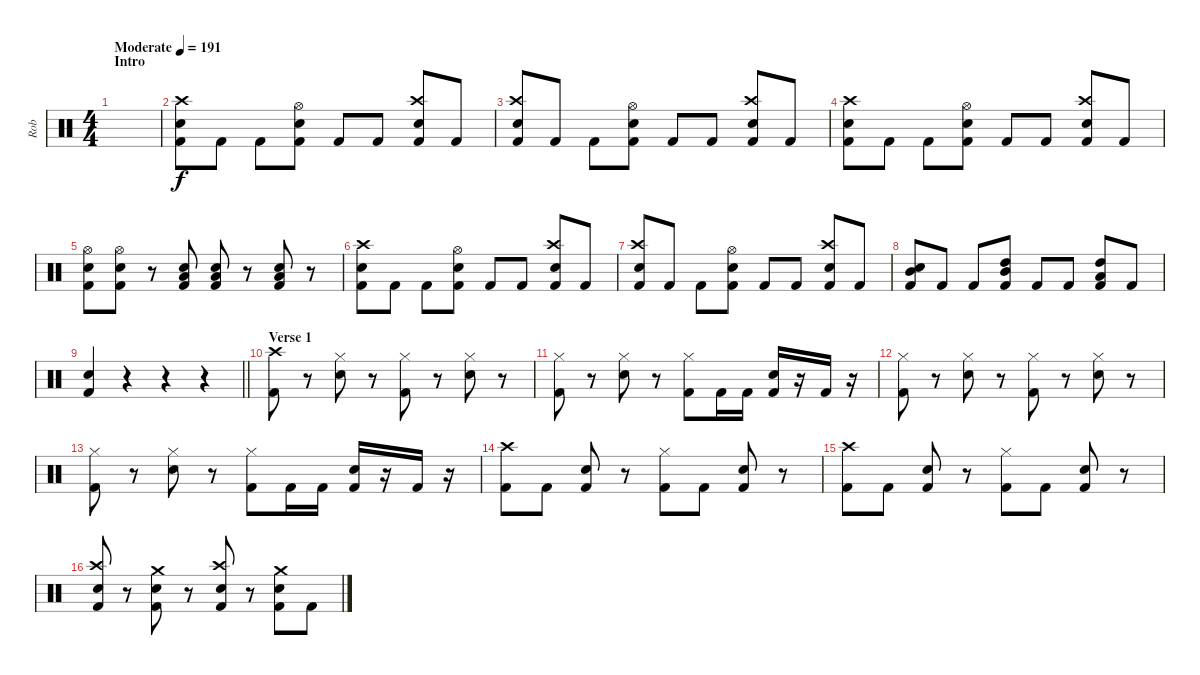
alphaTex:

\track ("Rob" "Rob") {instrument percussion}
\staff {score}
\articulation defaults
\ts (4 4)
\section ("" "Intro")
\tempo (191 "Moderate")
\clef neutral
\ks c
|
("Electric Snare (hit)" "Kick (hit) 2" "Crash high (hit)").8 "Kick (hit) 2".8 "Kick (hit) 2".8 ("Kick (hit) 2" "Snare (hit) 2" "Hi-Hat (open)").8 "Kick (hit) 2".8 "Kick (hit) 2".8 ("Kick (hit) 2" "Snare (hit) 2" "Crash high (hit)").8 "Kick (hit) 2".8 |
("Kick (hit) 2" "Crash high (hit)" "Snare (hit) 2").8 "Kick (hit) 2".8 "Kick (hit) 2".8 ("Kick (hit) 2" "Hi-Hat (open)" "Snare (hit) 2").8 "Kick (hit) 2".8 "Kick (hit) 2".8 ("Kick (hit) 2" "Snare (hit) 2" "Crash high (hit)").8 "Kick (hit) 2".8 |
("Electric Snare (hit)" "Kick (hit) 2" "Crash high (hit)").8 "Kick (hit) 2".8 "Kick (hit) 2".8 ("Kick (hit) 2" "Snare (hit) 2" "Hi-Hat (open)").8 "Kick (hit) 2".8 "Kick (hit) 2".8 ("Kick (hit) 2" "Snare (hit) 2" "Crash high (hit)").8 "Kick (hit) 2".8 |
("Kick (hit) 2" "Snare (hit) 2" "Hi-Hat (open)").8 ("Kick (hit) 2" "Snare (hit) 2" "Hi-Hat (open)").8 r.8 ("Kick (hit) 2" "Snare (hit) 2" "Low Tom (hit)").8 ("Kick (hit) 2" "Snare (hit) 2" "Low Tom (hit)").8 r.8 ("Kick (hit) 2" "Snare (hit) 2" "Low Tom (hit)").8 r.8 |
("Electric Snare (hit)" "Kick (hit) 2" "Crash high (hit)").8 "Kick (hit) 2".8 "Kick (hit) 2".8 ("Kick (hit) 2" "Snare (hit) 2" "Hi-Hat (open)").8 "Kick (hit) 2".8 "Kick (hit) 2".8 ("Kick (hit) 2" "Snare (hit) 2" "Crash high (hit)").8 "Kick (hit) 2".8 |
("Kick (hit) 2" "Crash high (hit)" "Snare (hit) 2").8 "Kick (hit) 2".8 "Kick (hit) 2".8 ("Kick (hit) 2" "Hi-Hat (open)" "Snare (hit) 2").8 "Kick (hit) 2".8 "Kick (hit) 2".8 ("Kick (hit) 2" "Snare (hit) 2" "Crash high (hit)").8 "Kick (hit) 2".8 |
("Snare (hit) 2" "Kick (hit) 2" "Mid Tom (hit)").8 "Kick (hit) 2".8 "Kick (hit) 2".8 ("Kick (hit) 2" "High Tom (hit)" "Mid Tom (hit)").8 "Kick (hit) 2".8 "Kick (hit) 2".8 ("Kick (hit) 2" "High Tom (hit)" "Low Tom (hit)").8 "Kick (hit) 2".8 |
\barLineRight lightlight
("Snare (hit) 2" "Kick (hit) 2").4 r.4 r.4 r.4 |
\section ("" "Verse 1")
("Crash high (hit)" "Kick (hit) 2").8 r.8 ("Hi-Hat (closed)" "Snare (hit) 2").8 r.8 ("Hi-Hat (closed)" "Kick (hit) 2").8 r.8 ("Hi-Hat (closed)" "Snare (hit) 2").8 r.8 |
("Hi-Hat (closed)" "Kick (hit) 2").8 r.8 ("Hi-Hat (closed)" "Snare (hit) 2").8 r.8 ("Hi-Hat (closed)" "Kick (hit) 2").8 "Kick (hit) 2".16 "Kick (hit) 2".16 ("Kick (hit) 2" "Snare (hit) 2").16 r.16 "Kick (hit) 2".16 r.16 |
("Hi-Hat (closed)" "Kick (hit) 2").8 r.8 ("Hi-Hat (closed)" "Snare (hit) 2").8 r.8 ("Hi-Hat (closed)" "Kick (hit) 2").8 r.8 ("Hi-Hat (closed)" "Snare (hit) 2").8 r.8 |
("Hi-Hat (closed)" "Kick (hit) 2").8 r.8 ("Hi-Hat (closed)" "Snare (hit) 2").8 r.8 ("Hi-Hat (closed)" "Kick (hit) 2").8 "Kick (hit) 2".16 "Kick (hit) 2".16 ("Kick (hit) 2" "Snare (hit) 2").16 r.16 "Kick (hit) 2".16 r.16 |
("Crash high (hit)" "Kick (hit) 2").8 "Kick (hit) 2".8 ("Snare (hit) 2" "Kick (hit) 2").8 r.8 ("Hi-Hat (closed)" "Kick (hit) 2").8 "Kick (hit) 2".8 ("Snare (hit) 2" "Kick (hit) 2").8 r.8 |
("Crash high (hit)" "Kick (hit) 2").8 "Kick (hit) 2".8 ("Snare (hit) 2" "Kick (hit) 2").8 r.8 ("Hi-Hat (closed)" "Kick (hit) 2").8 "Kick (hit) 2".8 ("Snare (hit) 2" "Kick (hit) 2").8 r.8 |
("Crash high (hit)" "Snare (hit) 2" "Kick (hit) 2").8 r.8 ("Crash medium (hit)" "Snare (hit) 2" "Kick (hit) 2").8 r.8 ("Crash high (hit)" "Snare (hit) 2" "Kick (hit) 2").8 r.8 ("Crash medium (hit)" "Snare (hit) 2" "Kick (hit) 2").8 "Kick (hit) 2".8
